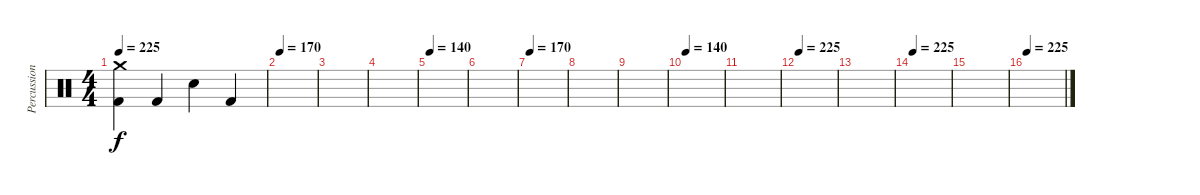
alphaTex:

\track ("Percussion" "Percussion") {instrument percussion}
\staff {score}
\articulation defaults
\ts (4 4)
\tempo 225
\clef neutral
\ks c
("Crash medium (hit)" "Kick (hit) 2").4{dy f} "Kick (hit) 2".4 "Electric Snare (hit)".4 "Kick (hit) 2".4 |
\tempo 170
|
|
|
\tempo 140
|
|
\tempo 170
|
|
|
\tempo 140
|
|
\tempo 225
|
|
\tempo 225
|
|
\tempo 225
